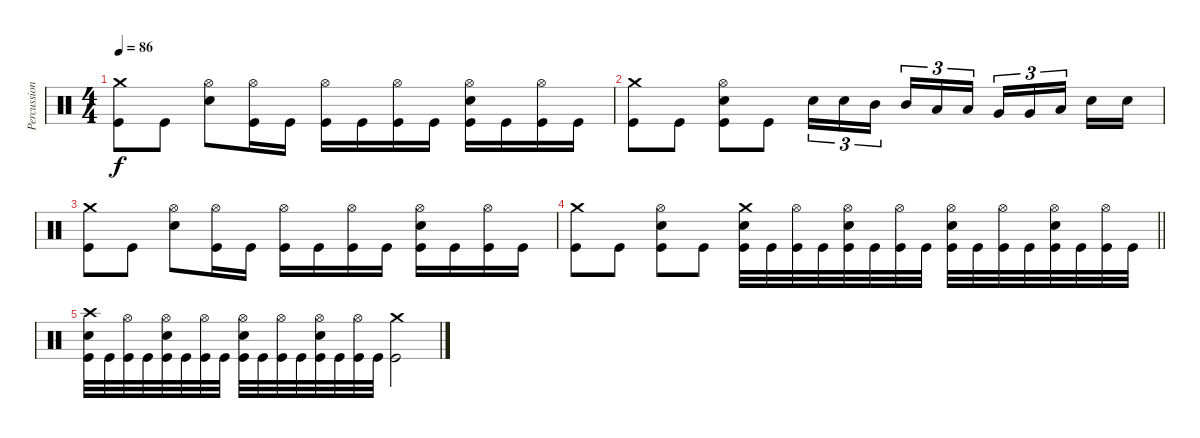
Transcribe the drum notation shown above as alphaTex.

\track ("Percussion" "Percussion") {instrument percussion}
\staff {score}
\articulation defaults
\ts (4 4)
\tempo 86
\clef neutral
\ks c
("Kick (hit)" "Crash medium (hit)").8{dy f} "Kick (hit)".8 ("Snare (hit) 2" "Hi-Hat (open)").8 ("Kick (hit)" "Hi-Hat (open)").16 "Kick (hit)".16 ("Kick (hit)" "Hi-Hat (open)").16 "Kick (hit)".16 ("Kick (hit)" "Hi-Hat (open)").16 "Kick (hit)".16 ("Kick (hit)" "Snare (hit) 2" "Hi-Hat (open)").16 "Kick (hit)".16 ("Kick (hit)" "Hi-Hat (open)").16 "Kick (hit)".16 |
("Kick (hit)" "Crash medium (hit)").8 "Kick (hit)".8 ("Kick (hit)" "Snare (hit) 2" "Hi-Hat (open)").8 "Kick (hit)".8 "Snare (hit) 2".16{tu (3 2)} "Snare (hit) 2".16{tu (3 2)} "Mid Tom (hit)".16{tu (3 2) beam splitsecondary} "Mid Tom (hit)".16{tu (3 2)} "Low Tom (hit)".16{tu (3 2)} "Low Tom (hit)".16{tu (3 2)} "Very Low Tom (hit)".16{tu (3 2)} "Very Low Tom (hit)".16{tu (3 2)} "Low Floor Tom (hit)".16{tu (3 2) beam splitsecondary} "Snare (hit) 2".16 "Snare (hit) 2".16 |
("Kick (hit)" "Crash medium (hit)").8 "Kick (hit)".8 ("Snare (hit) 2" "Hi-Hat (open)").8 ("Kick (hit)" "Hi-Hat (open)").16 "Kick (hit)".16 ("Kick (hit)" "Hi-Hat (open)").16 "Kick (hit)".16 ("Kick (hit)" "Hi-Hat (open)").16 "Kick (hit)".16 ("Kick (hit)" "Snare (hit) 2" "Hi-Hat (open)").16 "Kick (hit)".16 ("Kick (hit)" "Hi-Hat (open)").16 "Kick (hit)".16 |
\barLineRight lightlight
("Kick (hit)" "Crash medium (hit)").8 "Kick (hit)".8 ("Kick (hit)" "Snare (hit) 2" "Hi-Hat (open)").8 "Kick (hit)".8 ("Kick (hit)" "Snare (hit) 2" "Crash medium (hit)").32 "Kick (hit)".32 ("Kick (hit)" "Hi-Hat (open)").32 "Kick (hit)".32 ("Kick (hit)" "Snare (hit) 2" "Hi-Hat (open)").32 "Kick (hit)".32 ("Kick (hit)" "Hi-Hat (open)").32 "Kick (hit)".32 ("Kick (hit)" "Snare (hit) 2" "Hi-Hat (open)").32 "Kick (hit)".32 ("Kick (hit)" "Hi-Hat (open)").32 "Kick (hit)".32 ("Kick (hit)" "Snare (hit) 2" "Hi-Hat (open)").32 "Kick (hit)".32 ("Kick (hit)" "Hi-Hat (open)").32 "Kick (hit)".32 |
("Kick (hit)" "Snare (hit) 2" "Crash high (hit)").32 "Kick (hit)".32 ("Kick (hit)" "Hi-Hat (open)").32 "Kick (hit)".32 ("Kick (hit)" "Snare (hit) 2" "Hi-Hat (open)").32 "Kick (hit)".32 ("Kick (hit)" "Hi-Hat (open)").32 "Kick (hit)".32 ("Kick (hit)" "Snare (hit) 2" "Hi-Hat (open)").32 "Kick (hit)".32 ("Kick (hit)" "Hi-Hat (open)").32 "Kick (hit)".32 ("Kick (hit)" "Snare (hit) 2" "Hi-Hat (open)").32 "Kick (hit)".32 ("Kick (hit)" "Hi-Hat (open)").32 "Kick (hit)".32 ("Kick (hit)" "Crash medium (hit)").2
